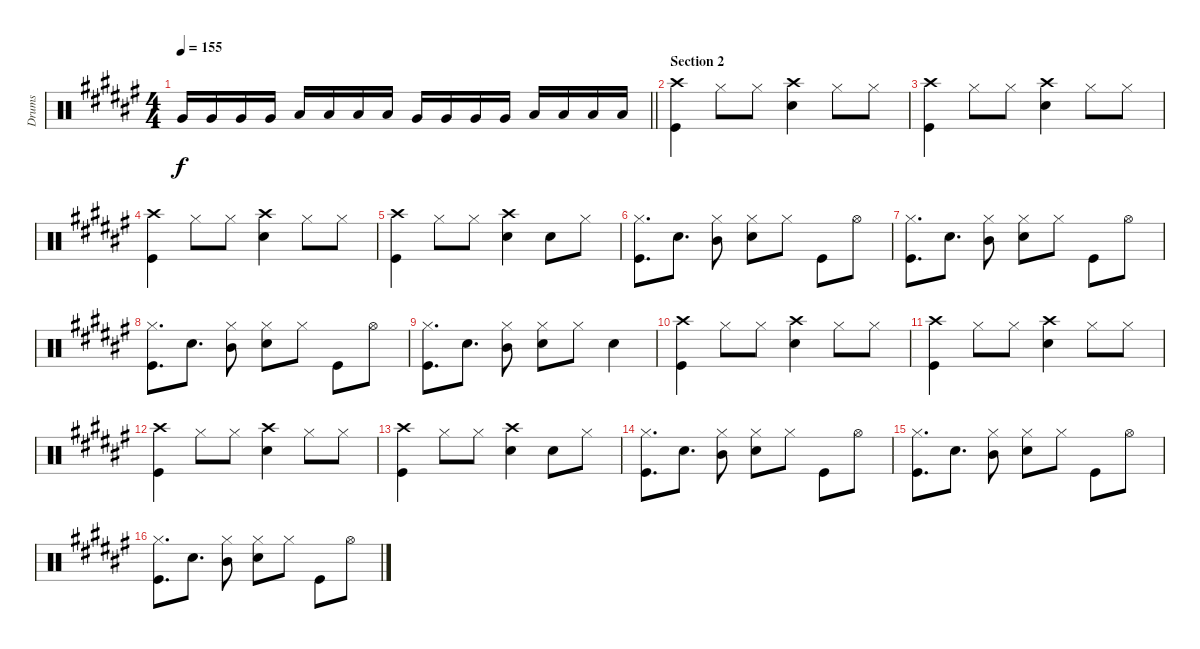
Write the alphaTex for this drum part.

\track ("Drums" "Drums") {instrument percussion}
\staff {score}
\articulation defaults
\ts (4 4)
\tempo 155
\clef neutral
\barLineRight lightlight
\ks f# "Very Low Tom (hit)".16{dy f} "Very Low Tom (hit)".16 "Very Low Tom (hit)".16 "Very Low Tom (hit)".16 "Low Floor Tom (hit)".16 "Low Floor Tom (hit)".16 "Low Floor Tom (hit)".16 "Low Floor Tom (hit)".16 "Very Low Tom (hit)".16 "Very Low Tom (hit)".16 "Very Low Tom (hit)".16 "Very Low Tom (hit)".16 "Low Tom (hit)".16 "Low Tom (hit)".16 "Low Tom (hit)".16 "Low Tom (hit)".16
|
\section ("" "Section 2")
("Crash high (hit)" "Kick (hit)").4 "Hi-Hat (closed)".8 "Hi-Hat (closed)".8 ("Crash high (hit)" "Snare (hit) 2").4 "Hi-Hat (closed)".8 "Hi-Hat (closed)".8 |
("Crash high (hit)" "Kick (hit)").4 "Hi-Hat (closed)".8 "Hi-Hat (closed)".8 ("Crash high (hit)" "Snare (hit) 2").4 "Hi-Hat (closed)".8 "Hi-Hat (closed)".8 |
("Crash high (hit)" "Kick (hit)").4 "Hi-Hat (closed)".8 "Hi-Hat (closed)".8 ("Crash high (hit)" "Snare (hit) 2").4 "Hi-Hat (closed)".8 "Hi-Hat (closed)".8 |
("Crash high (hit)" "Kick (hit)").4 "Hi-Hat (closed)".8 "Hi-Hat (closed)".8 ("Crash high (hit)" "Snare (hit) 2").4 "Snare (hit) 2".8 "Hi-Hat (closed)".8 |
("Hi-Hat (closed)" "Kick (hit)").8{d} "Snare (hit) 2".8{d} ("Hi-Hat (closed)" "Mid Tom (hit)").8 ("Hi-Hat (closed)" "Snare (hit) 2").8 "Hi-Hat (closed)".8 "Kick (hit)".8 "Hi-Hat (open)".8 |
("Hi-Hat (closed)" "Kick (hit)").8{d} "Snare (hit) 2".8{d} ("Hi-Hat (closed)" "Mid Tom (hit)").8 ("Hi-Hat (closed)" "Snare (hit) 2").8 "Hi-Hat (closed)".8 "Kick (hit)".8 "Hi-Hat (open)".8 |
("Hi-Hat (closed)" "Kick (hit)").8{d} "Snare (hit) 2".8{d} ("Hi-Hat (closed)" "Mid Tom (hit)").8 ("Hi-Hat (closed)" "Snare (hit) 2").8 "Hi-Hat (closed)".8 "Kick (hit)".8 "Hi-Hat (open)".8 |
("Hi-Hat (closed)" "Kick (hit)").8{d} "Snare (hit) 2".8{d} ("Hi-Hat (closed)" "Mid Tom (hit)").8 ("Hi-Hat (closed)" "Snare (hit) 2").8 "Hi-Hat (closed)".8 "Snare (hit) 2".4 |
("Crash high (hit)" "Kick (hit)").4 "Hi-Hat (closed)".8 "Hi-Hat (closed)".8 ("Crash high (hit)" "Snare (hit) 2").4 "Hi-Hat (closed)".8 "Hi-Hat (closed)".8 |
("Crash high (hit)" "Kick (hit)").4 "Hi-Hat (closed)".8 "Hi-Hat (closed)".8 ("Crash high (hit)" "Snare (hit) 2").4 "Hi-Hat (closed)".8 "Hi-Hat (closed)".8 |
("Crash high (hit)" "Kick (hit)").4 "Hi-Hat (closed)".8 "Hi-Hat (closed)".8 ("Crash high (hit)" "Snare (hit) 2").4 "Hi-Hat (closed)".8 "Hi-Hat (closed)".8 |
("Crash high (hit)" "Kick (hit)").4 "Hi-Hat (closed)".8 "Hi-Hat (closed)".8 ("Crash high (hit)" "Snare (hit) 2").4 "Snare (hit) 2".8 "Hi-Hat (closed)".8 |
("Hi-Hat (closed)" "Kick (hit)").8{d} "Snare (hit) 2".8{d} ("Hi-Hat (closed)" "Mid Tom (hit)").8 ("Hi-Hat (closed)" "Snare (hit) 2").8 "Hi-Hat (closed)".8 "Kick (hit)".8 "Hi-Hat (open)".8 |
("Hi-Hat (closed)" "Kick (hit)").8{d} "Snare (hit) 2".8{d} ("Hi-Hat (closed)" "Mid Tom (hit)").8 ("Hi-Hat (closed)" "Snare (hit) 2").8 "Hi-Hat (closed)".8 "Kick (hit)".8 "Hi-Hat (open)".8 |
("Hi-Hat (closed)" "Kick (hit)").8{d} "Snare (hit) 2".8{d} ("Hi-Hat (closed)" "Mid Tom (hit)").8 ("Hi-Hat (closed)" "Snare (hit) 2").8 "Hi-Hat (closed)".8 "Kick (hit)".8 "Hi-Hat (open)".8
